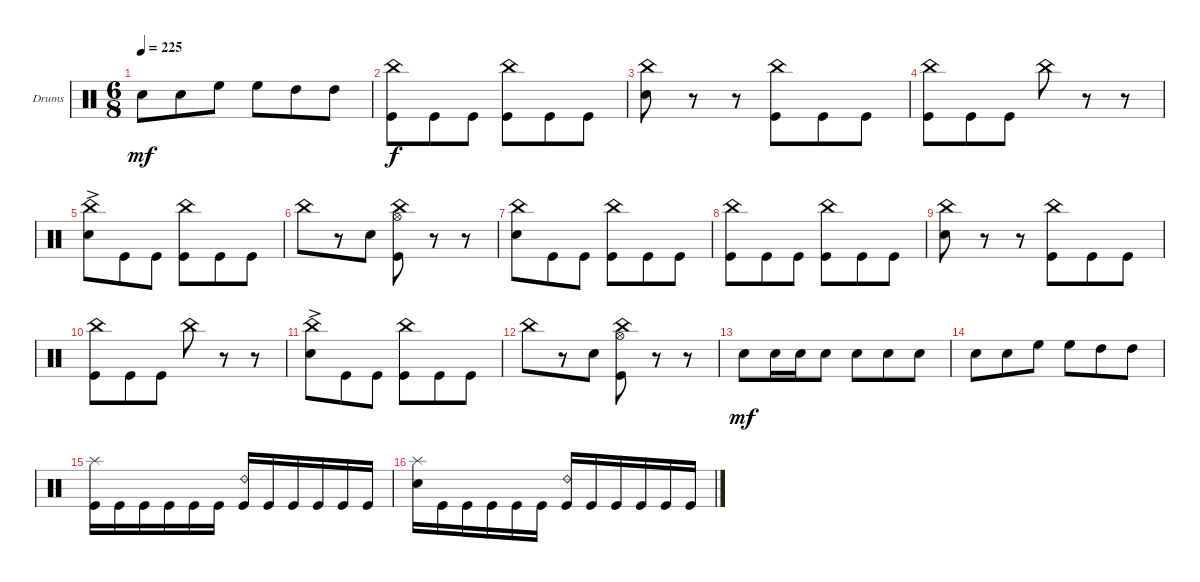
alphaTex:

\bracketExtendMode groupsimilarinstruments
\firstSystemTrackNameOrientation horizontal
\otherSystemsTrackNameOrientation horizontal
\track ("Drumkit" "Drums") {solo instrument percussion}
\staff {score}
\articulation defaults
\ts (6 8)
\tempo 225
\clef neutral
\ks c "Snare (hit) 2".8{dy mf} "Snare (hit) 2".8 "High Floor Tom (hit)".8 "High Floor Tom (hit)".8 "High Tom (hit)".8 "High Tom (hit)".8
|
("Kick (hit)" "China (hit)").8{dy f} "Kick (hit)".8 "Kick (hit)".8 ("Kick (hit)" "China (hit)").8 "Kick (hit)".8 "Kick (hit)".8 |
("Snare (hit) 2" "China (hit)").8 r.8 r.8 ("Kick (hit)" "China (hit)").8 "Kick (hit)".8 "Kick (hit)".8 |
("Kick (hit)" "China (hit)").8 "Kick (hit)".8 "Kick (hit)".8 "China (hit)".8 r.8 r.8 |
("Snare (hit) 2"{ac} "China (hit)").8 "Kick (hit)".8 "Kick (hit)".8 ("Kick (hit)" "China (hit)").8 "Kick (hit)".8 "Kick (hit)".8 |
"China (hit)".8 r.8 "Snare (hit) 2".8 ("Kick (hit)" "Hi-Hat (open)" "China (hit)").8 r.8 r.8 |
("Snare (hit) 2" "China (hit)").8 "Kick (hit)".8 "Kick (hit)".8 ("Kick (hit)" "China (hit)").8 "Kick (hit)".8 "Kick (hit)".8 |
("Kick (hit)" "China (hit)").8 "Kick (hit)".8 "Kick (hit)".8 ("Kick (hit)" "China (hit)").8 "Kick (hit)".8 "Kick (hit)".8 |
("Snare (hit) 2" "China (hit)").8 r.8 r.8 ("Kick (hit)" "China (hit)").8 "Kick (hit)".8 "Kick (hit)".8 |
("Kick (hit)" "China (hit)").8 "Kick (hit)".8 "Kick (hit)".8 "China (hit)".8 r.8 r.8 |
("Snare (hit) 2"{ac} "China (hit)").8 "Kick (hit)".8 "Kick (hit)".8 ("Kick (hit)" "China (hit)").8 "Kick (hit)".8 "Kick (hit)".8 |
"China (hit)".8 r.8 "Snare (hit) 2".8 ("Kick (hit)" "Hi-Hat (open)" "China (hit)").8 r.8 r.8 |
"Snare (hit) 2".8{dy mf} "Snare (hit) 2".16 "Snare (hit) 2".16 "Snare (hit) 2".8 "Snare (hit) 2".8 "Snare (hit) 2".8 "Snare (hit) 2".8 |
"Snare (hit) 2".8 "Snare (hit) 2".8 "High Floor Tom (hit)".8 "High Floor Tom (hit)".8 "High Tom (hit)".8 "High Tom (hit)".8 |
("Kick (hit)" "Splash (hit)").16 "Kick (hit)".16 "Kick (hit)".16 "Kick (hit)".16 "Kick (hit)".16 "Kick (hit)".16 ("Kick (hit)" "Ride (bell) 2").16 "Kick (hit)".16 "Kick (hit)".16 "Kick (hit)".16 "Kick (hit)".16 "Kick (hit)".16 |
("Snare (hit) 2" "Splash (hit)").16 "Kick (hit)".16 "Kick (hit)".16 "Kick (hit)".16 "Kick (hit)".16 "Kick (hit)".16 ("Kick (hit)" "Ride (bell) 2").16 "Kick (hit)".16 "Kick (hit)".16 "Kick (hit)".16 "Kick (hit)".16 "Kick (hit)".16
